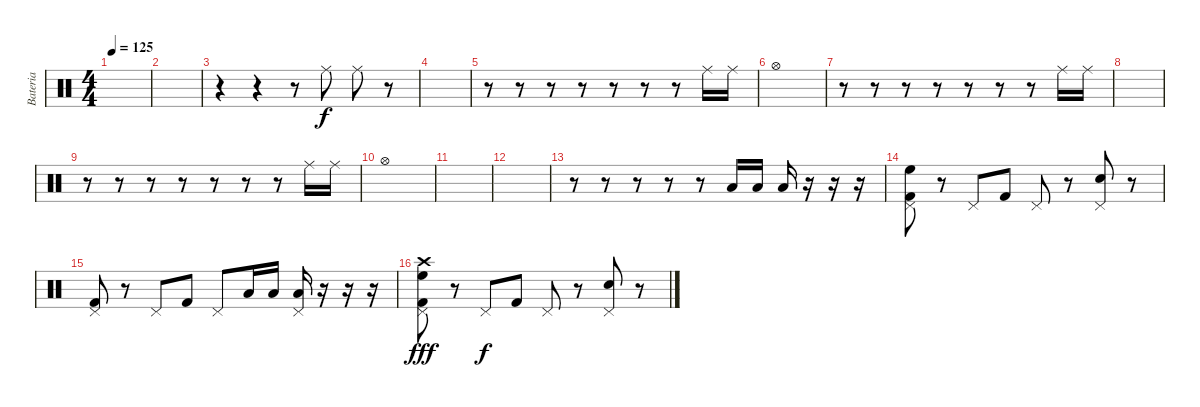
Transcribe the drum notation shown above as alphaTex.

\track ("Bateria" "Bateria") {instrument percussion}
\staff {score}
\articulation defaults
\ts (4 4)
\tempo 125
\clef neutral
\ks c
|
|
r.4 r.4 r.8 "Ride (middle)".8{dy f} "Ride (middle)".8 r.8 |
|
r.8 r.8 r.8 r.8 r.8 r.8 r.8 "Ride (middle)".16 "Ride (middle)".16 |
"Hi-Hat (open)".1 |
r.8 r.8 r.8 r.8 r.8 r.8 r.8 "Ride (middle)".16 "Ride (middle)".16 |
|
r.8 r.8 r.8 r.8 r.8 r.8 r.8 "Ride (middle)".16 "Ride (middle)".16 |
"Hi-Hat (open)".1 |
|
|
r.8 r.8 r.8 r.8 r.8 "Low Tom (hit)".16 "Low Tom (hit)".16 "Low Tom (hit)".16 r.16 r.16 r.16 |
("High Floor Tom (hit)" "Pedal Hi-Hat (hit)" "Kick (hit) 2").8 r.8 "Pedal Hi-Hat (hit)".8 "Kick (hit) 2".8 "Pedal Hi-Hat (hit)".8 r.8 ("Snare (hit) 2" "Pedal Hi-Hat (hit)").8 r.8 |
("Pedal Hi-Hat (hit)" "Kick (hit) 2").8 r.8 "Pedal Hi-Hat (hit)".8 "Kick (hit) 2".8 "Pedal Hi-Hat (hit)".8 "Low Tom (hit)".16 "Low Tom (hit)".16 ("Low Tom (hit)" "Pedal Hi-Hat (hit)").16 r.16 r.16 r.16 |
("High Floor Tom (hit)" "Pedal Hi-Hat (hit)" "Kick (hit) 2" "Crash high (hit)").8{dy fff} r.8 "Pedal Hi-Hat (hit)".8{dy f} "Kick (hit) 2".8 "Pedal Hi-Hat (hit)".8 r.8 ("Snare (hit) 2" "Pedal Hi-Hat (hit)").8 r.8
